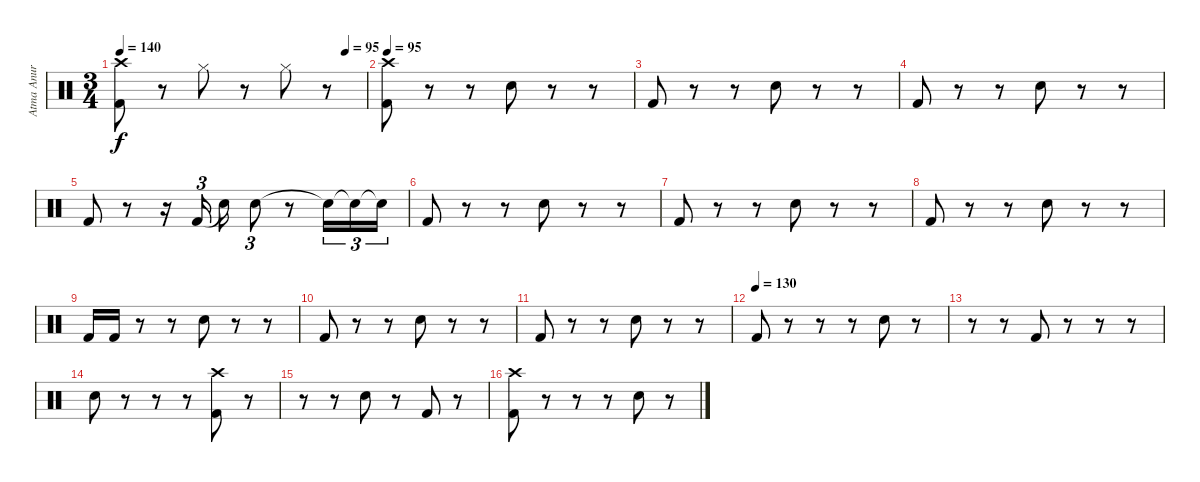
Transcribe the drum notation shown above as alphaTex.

\track ("Atma Anur" "Atma Anur") {instrument percussion}
\staff {score}
\articulation defaults
\ts (3 4)
\tempo 140
\tempo (95 0.9166666666666666)
\clef neutral
\ks c
("Crash high (hit)" "Kick (hit) 2").8{dy f} r.8 "Hi-Hat (closed)".8 r.8 "Hi-Hat (closed)".8 r.8 |
\tempo 95
("Crash high (hit)" "Kick (hit) 2").8 r.8 r.8 "Snare (hit) 2".8 r.8 r.8 |
"Kick (hit) 2".8 r.8 r.8 "Snare (hit) 2".8 r.8 r.8 |
"Kick (hit) 2".8 r.8 r.8 "Snare (hit) 2".8 r.8 r.8 |
"Kick (hit) 2".8 r.8 r.16 "Kick (hit) 2".16{tu (3 2)} "Snare (hit) 2"{t}.16 "Snare (hit) 2".8{tu (3 2)} r.8 "Snare (hit)"{t}.16{tu (3 2)} "Snare (hit)"{t}.16{tu (3 2)} "Snare (hit)"{t}.16{tu (3 2)} |
"Kick (hit) 2".8 r.8 r.8 "Snare (hit) 2".8 r.8 r.8 |
"Kick (hit) 2".8 r.8 r.8 "Snare (hit) 2".8 r.8 r.8 |
"Kick (hit) 2".8 r.8 r.8 "Snare (hit) 2".8 r.8 r.8 |
"Kick (hit) 2".16 "Kick (hit) 2".16 r.8 r.8 "Snare (hit) 2".8 r.8 r.8 |
"Kick (hit) 2".8 r.8 r.8 "Snare (hit) 2".8 r.8 r.8 |
"Kick (hit) 2".8 r.8 r.8 "Snare (hit) 2".8 r.8 r.8 |
\tempo (130)
"Kick (hit) 2".8 r.8 r.8 r.8 "Snare (hit) 2".8 r.8 |
r.8 r.8 "Kick (hit) 2".8 r.8 r.8 r.8 |
"Snare (hit) 2".8 r.8 r.8 r.8 ("Crash high (hit)" "Kick (hit) 2").8 r.8 |
r.8 r.8 "Snare (hit) 2".8 r.8 "Kick (hit) 2".8 r.8 |
("Crash high (hit)" "Kick (hit) 2").8 r.8 r.8 r.8 "Snare (hit) 2".8 r.8
